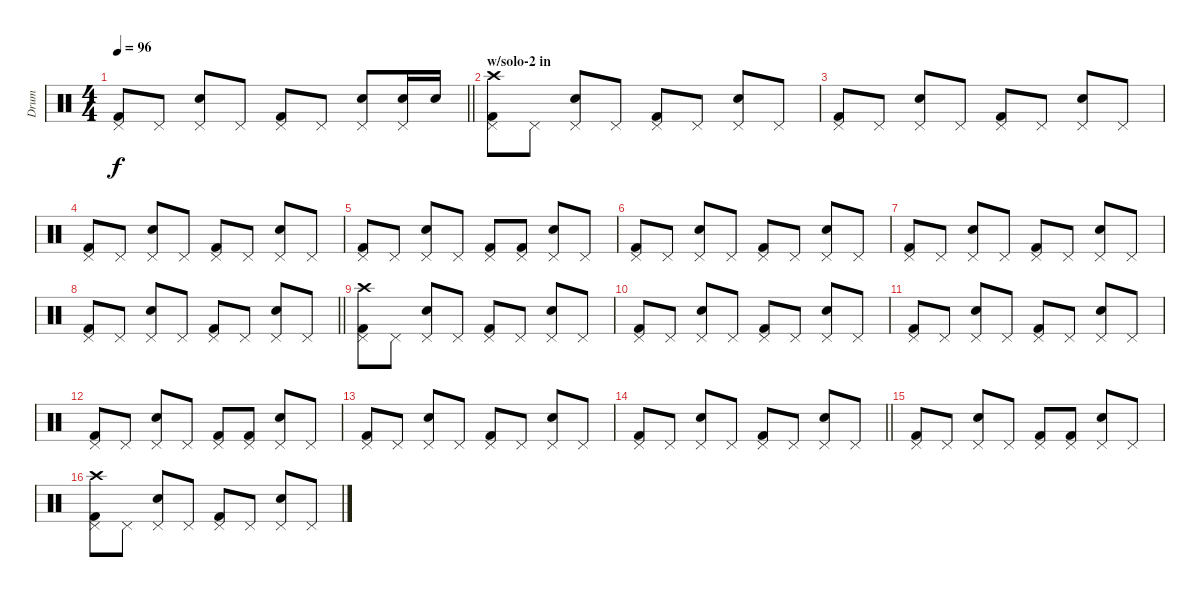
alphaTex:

\track ("Drum" "Drum") {instrument percussion}
\staff {score}
\articulation defaults
\ts (4 4)
\tempo 96
\clef neutral
\barLineRight lightlight
\ks c
("Pedal Hi-Hat (hit)" "Kick (hit) 2").8{dy f} "Pedal Hi-Hat (hit)".8 ("Pedal Hi-Hat (hit)" "Snare (hit) 2").8 "Pedal Hi-Hat (hit)".8 ("Pedal Hi-Hat (hit)" "Kick (hit) 2").8 "Pedal Hi-Hat (hit)".8 ("Pedal Hi-Hat (hit)" "Snare (hit) 2").8 ("Pedal Hi-Hat (hit)" "Snare (hit) 2").16 "Snare (hit) 2".16 |
\section ("" "w/solo-2 in")
("Pedal Hi-Hat (hit)" "Crash high (hit)" "Kick (hit) 2").8 "Pedal Hi-Hat (hit)".8 ("Pedal Hi-Hat (hit)" "Snare (hit) 2").8 "Pedal Hi-Hat (hit)".8 ("Pedal Hi-Hat (hit)" "Kick (hit) 2").8 "Pedal Hi-Hat (hit)".8 ("Pedal Hi-Hat (hit)" "Snare (hit) 2").8 "Pedal Hi-Hat (hit)".8 |
("Pedal Hi-Hat (hit)" "Kick (hit) 2").8 "Pedal Hi-Hat (hit)".8 ("Pedal Hi-Hat (hit)" "Snare (hit) 2").8 "Pedal Hi-Hat (hit)".8 ("Pedal Hi-Hat (hit)" "Kick (hit) 2").8 "Pedal Hi-Hat (hit)".8 ("Pedal Hi-Hat (hit)" "Snare (hit) 2").8 "Pedal Hi-Hat (hit)".8 |
("Pedal Hi-Hat (hit)" "Kick (hit) 2").8 "Pedal Hi-Hat (hit)".8 ("Pedal Hi-Hat (hit)" "Snare (hit) 2").8 "Pedal Hi-Hat (hit)".8 ("Pedal Hi-Hat (hit)" "Kick (hit) 2").8 "Pedal Hi-Hat (hit)".8 ("Pedal Hi-Hat (hit)" "Snare (hit) 2").8 "Pedal Hi-Hat (hit)".8 |
("Pedal Hi-Hat (hit)" "Kick (hit) 2").8 "Pedal Hi-Hat (hit)".8 ("Pedal Hi-Hat (hit)" "Snare (hit) 2").8 "Pedal Hi-Hat (hit)".8 ("Pedal Hi-Hat (hit)" "Kick (hit) 2").8 ("Pedal Hi-Hat (hit)" "Kick (hit) 2").8 ("Pedal Hi-Hat (hit)" "Snare (hit) 2").8 "Pedal Hi-Hat (hit)".8 |
("Pedal Hi-Hat (hit)" "Kick (hit) 2").8 "Pedal Hi-Hat (hit)".8 ("Pedal Hi-Hat (hit)" "Snare (hit) 2").8 "Pedal Hi-Hat (hit)".8 ("Pedal Hi-Hat (hit)" "Kick (hit) 2").8 "Pedal Hi-Hat (hit)".8 ("Pedal Hi-Hat (hit)" "Snare (hit) 2").8 "Pedal Hi-Hat (hit)".8 |
("Pedal Hi-Hat (hit)" "Kick (hit) 2").8 "Pedal Hi-Hat (hit)".8 ("Pedal Hi-Hat (hit)" "Snare (hit) 2").8 "Pedal Hi-Hat (hit)".8 ("Pedal Hi-Hat (hit)" "Kick (hit) 2").8 "Pedal Hi-Hat (hit)".8 ("Pedal Hi-Hat (hit)" "Snare (hit) 2").8 "Pedal Hi-Hat (hit)".8 |
\barLineRight lightlight
("Pedal Hi-Hat (hit)" "Kick (hit) 2").8 "Pedal Hi-Hat (hit)".8 ("Pedal Hi-Hat (hit)" "Snare (hit) 2").8 "Pedal Hi-Hat (hit)".8 ("Pedal Hi-Hat (hit)" "Kick (hit) 2").8 "Pedal Hi-Hat (hit)".8 ("Pedal Hi-Hat (hit)" "Snare (hit) 2").8 "Pedal Hi-Hat (hit)".8 |
("Pedal Hi-Hat (hit)" "Crash high (hit)" "Kick (hit) 2").8 "Pedal Hi-Hat (hit)".8 ("Pedal Hi-Hat (hit)" "Snare (hit) 2").8 "Pedal Hi-Hat (hit)".8 ("Pedal Hi-Hat (hit)" "Kick (hit) 2").8 "Pedal Hi-Hat (hit)".8 ("Pedal Hi-Hat (hit)" "Snare (hit) 2").8 "Pedal Hi-Hat (hit)".8 |
("Pedal Hi-Hat (hit)" "Kick (hit) 2").8 "Pedal Hi-Hat (hit)".8 ("Pedal Hi-Hat (hit)" "Snare (hit) 2").8 "Pedal Hi-Hat (hit)".8 ("Pedal Hi-Hat (hit)" "Kick (hit) 2").8 "Pedal Hi-Hat (hit)".8 ("Pedal Hi-Hat (hit)" "Snare (hit) 2").8 "Pedal Hi-Hat (hit)".8 |
("Pedal Hi-Hat (hit)" "Kick (hit) 2").8 "Pedal Hi-Hat (hit)".8 ("Pedal Hi-Hat (hit)" "Snare (hit) 2").8 "Pedal Hi-Hat (hit)".8 ("Pedal Hi-Hat (hit)" "Kick (hit) 2").8 "Pedal Hi-Hat (hit)".8 ("Pedal Hi-Hat (hit)" "Snare (hit) 2").8 "Pedal Hi-Hat (hit)".8 |
("Pedal Hi-Hat (hit)" "Kick (hit) 2").8 "Pedal Hi-Hat (hit)".8 ("Pedal Hi-Hat (hit)" "Snare (hit) 2").8 "Pedal Hi-Hat (hit)".8 ("Pedal Hi-Hat (hit)" "Kick (hit) 2").8 ("Pedal Hi-Hat (hit)" "Kick (hit) 2").8 ("Pedal Hi-Hat (hit)" "Snare (hit) 2").8 "Pedal Hi-Hat (hit)".8 |
("Pedal Hi-Hat (hit)" "Kick (hit) 2").8 "Pedal Hi-Hat (hit)".8 ("Pedal Hi-Hat (hit)" "Snare (hit) 2").8 "Pedal Hi-Hat (hit)".8 ("Pedal Hi-Hat (hit)" "Kick (hit) 2").8 "Pedal Hi-Hat (hit)".8 ("Pedal Hi-Hat (hit)" "Snare (hit) 2").8 "Pedal Hi-Hat (hit)".8 |
\barLineRight lightlight
("Pedal Hi-Hat (hit)" "Kick (hit) 2").8 "Pedal Hi-Hat (hit)".8 ("Pedal Hi-Hat (hit)" "Snare (hit) 2").8 "Pedal Hi-Hat (hit)".8 ("Pedal Hi-Hat (hit)" "Kick (hit) 2").8 "Pedal Hi-Hat (hit)".8 ("Pedal Hi-Hat (hit)" "Snare (hit) 2").8 "Pedal Hi-Hat (hit)".8 |
("Pedal Hi-Hat (hit)" "Kick (hit) 2").8 "Pedal Hi-Hat (hit)".8 ("Pedal Hi-Hat (hit)" "Snare (hit) 2").8 "Pedal Hi-Hat (hit)".8 ("Pedal Hi-Hat (hit)" "Kick (hit) 2").8 ("Pedal Hi-Hat (hit)" "Kick (hit) 2").8 ("Pedal Hi-Hat (hit)" "Snare (hit) 2").8 "Pedal Hi-Hat (hit)".8 |
("Pedal Hi-Hat (hit)" "Crash high (hit)" "Kick (hit) 2").8 "Pedal Hi-Hat (hit)".8 ("Pedal Hi-Hat (hit)" "Snare (hit) 2").8 "Pedal Hi-Hat (hit)".8 ("Pedal Hi-Hat (hit)" "Kick (hit) 2").8 "Pedal Hi-Hat (hit)".8 ("Pedal Hi-Hat (hit)" "Snare (hit) 2").8 "Pedal Hi-Hat (hit)".8
